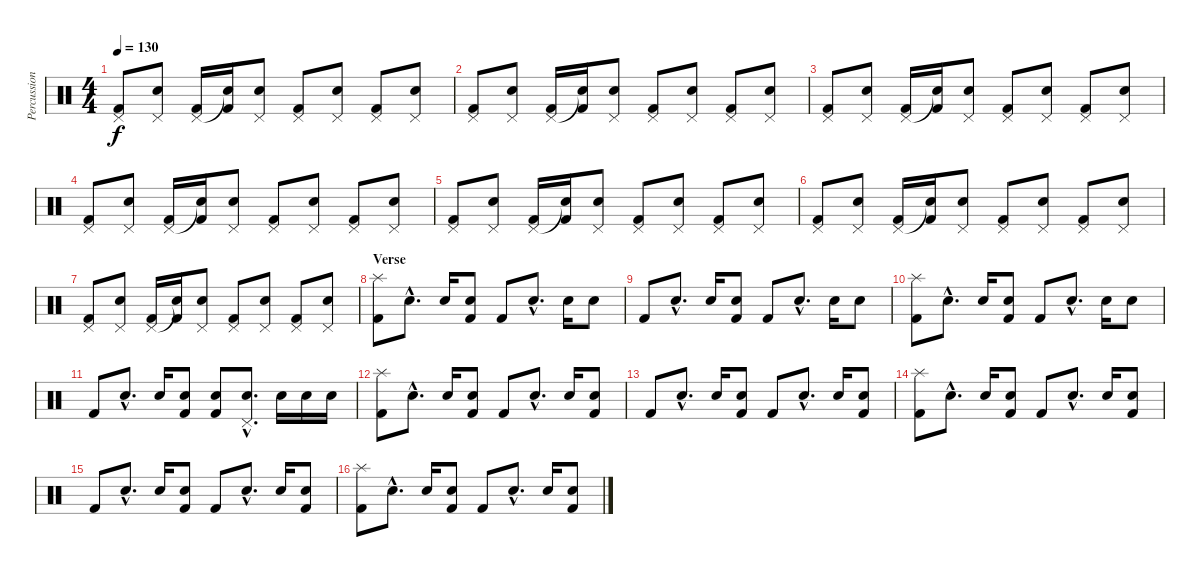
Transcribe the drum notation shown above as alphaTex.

\track ("Percussion" "Percussion") {instrument percussion}
\staff {score}
\articulation defaults
\ts (4 4)
\tempo 130
\clef neutral
\ks c
("Pedal Hi-Hat (hit)" "Kick (hit) 2").8{dy f} ("Pedal Hi-Hat (hit)" "Electric Snare (hit)").8 ("Pedal Hi-Hat (hit)" "Kick (hit) 2").16 ("Snare (hit)"{t} "Kick (hit) 2").16 ("Pedal Hi-Hat (hit)" "Electric Snare (hit)").8 ("Pedal Hi-Hat (hit)" "Kick (hit) 2").8 ("Pedal Hi-Hat (hit)" "Electric Snare (hit)").8 ("Pedal Hi-Hat (hit)" "Kick (hit) 2").8 ("Pedal Hi-Hat (hit)" "Electric Snare (hit)").8 |
("Pedal Hi-Hat (hit)" "Kick (hit) 2").8 ("Pedal Hi-Hat (hit)" "Electric Snare (hit)").8 ("Pedal Hi-Hat (hit)" "Kick (hit) 2").16 ("Snare (hit)"{t} "Kick (hit) 2").16 ("Pedal Hi-Hat (hit)" "Electric Snare (hit)").8 ("Pedal Hi-Hat (hit)" "Kick (hit) 2").8 ("Pedal Hi-Hat (hit)" "Electric Snare (hit)").8 ("Pedal Hi-Hat (hit)" "Kick (hit) 2").8 ("Pedal Hi-Hat (hit)" "Electric Snare (hit)").8 |
("Pedal Hi-Hat (hit)" "Kick (hit) 2").8 ("Pedal Hi-Hat (hit)" "Electric Snare (hit)").8 ("Pedal Hi-Hat (hit)" "Kick (hit) 2").16 ("Snare (hit)"{t} "Kick (hit) 2").16 ("Pedal Hi-Hat (hit)" "Electric Snare (hit)").8 ("Pedal Hi-Hat (hit)" "Kick (hit) 2").8 ("Pedal Hi-Hat (hit)" "Electric Snare (hit)").8 ("Pedal Hi-Hat (hit)" "Kick (hit) 2").8 ("Pedal Hi-Hat (hit)" "Electric Snare (hit)").8 |
("Pedal Hi-Hat (hit)" "Kick (hit) 2").8 ("Pedal Hi-Hat (hit)" "Electric Snare (hit)").8 ("Pedal Hi-Hat (hit)" "Kick (hit) 2").16 ("Snare (hit)"{t} "Kick (hit) 2").16 ("Pedal Hi-Hat (hit)" "Electric Snare (hit)").8 ("Pedal Hi-Hat (hit)" "Kick (hit) 2").8 ("Pedal Hi-Hat (hit)" "Electric Snare (hit)").8 ("Pedal Hi-Hat (hit)" "Kick (hit) 2").8 ("Pedal Hi-Hat (hit)" "Electric Snare (hit)").8 |
("Pedal Hi-Hat (hit)" "Kick (hit) 2").8 ("Pedal Hi-Hat (hit)" "Electric Snare (hit)").8 ("Pedal Hi-Hat (hit)" "Kick (hit) 2").16 ("Snare (hit)"{t} "Kick (hit) 2").16 ("Pedal Hi-Hat (hit)" "Electric Snare (hit)").8 ("Pedal Hi-Hat (hit)" "Kick (hit) 2").8 ("Pedal Hi-Hat (hit)" "Electric Snare (hit)").8 ("Pedal Hi-Hat (hit)" "Kick (hit) 2").8 ("Pedal Hi-Hat (hit)" "Electric Snare (hit)").8 |
("Pedal Hi-Hat (hit)" "Kick (hit) 2").8 ("Pedal Hi-Hat (hit)" "Electric Snare (hit)").8 ("Pedal Hi-Hat (hit)" "Kick (hit) 2").16 ("Snare (hit)"{t} "Kick (hit) 2").16 ("Pedal Hi-Hat (hit)" "Electric Snare (hit)").8 ("Pedal Hi-Hat (hit)" "Kick (hit) 2").8 ("Pedal Hi-Hat (hit)" "Electric Snare (hit)").8 ("Pedal Hi-Hat (hit)" "Kick (hit) 2").8 ("Pedal Hi-Hat (hit)" "Electric Snare (hit)").8 |
("Pedal Hi-Hat (hit)" "Kick (hit) 2").8 ("Pedal Hi-Hat (hit)" "Electric Snare (hit)").8 ("Pedal Hi-Hat (hit)" "Kick (hit) 2").16 ("Snare (hit)"{t} "Kick (hit) 2").16 ("Pedal Hi-Hat (hit)" "Electric Snare (hit)").8 ("Pedal Hi-Hat (hit)" "Kick (hit) 2").8 ("Pedal Hi-Hat (hit)" "Electric Snare (hit)").8 ("Pedal Hi-Hat (hit)" "Kick (hit) 2").8 ("Pedal Hi-Hat (hit)" "Electric Snare (hit)").8 |
\section ("" "Verse")
("Splash (hit)" "Kick (hit) 2").8 "Electric Snare (hit)"{hac}.8{d} "Electric Snare (hit)".16 ("Electric Snare (hit)" "Kick (hit) 2").8 "Kick (hit) 2".8 "Electric Snare (hit)"{hac}.8{d} "Electric Snare (hit)".16 "Electric Snare (hit)".8 |
"Kick (hit) 2".8 "Electric Snare (hit)"{hac}.8{d} "Electric Snare (hit)".16 ("Electric Snare (hit)" "Kick (hit) 2").8 "Kick (hit) 2".8 "Electric Snare (hit)"{hac}.8{d} "Electric Snare (hit)".16 "Electric Snare (hit)".8 |
("Splash (hit)" "Kick (hit) 2").8 "Electric Snare (hit)"{hac}.8{d} "Electric Snare (hit)".16 ("Electric Snare (hit)" "Kick (hit) 2").8 "Kick (hit) 2".8 "Electric Snare (hit)"{hac}.8{d} "Electric Snare (hit)".16 "Electric Snare (hit)".8 |
"Kick (hit) 2".8 "Electric Snare (hit)"{hac}.8{d} "Electric Snare (hit)".16 ("Electric Snare (hit)" "Kick (hit) 2").8 ("Electric Snare (hit)" "Kick (hit) 2").8 ("Pedal Hi-Hat (hit)"{hac} "Electric Snare (hit)"{hac}).8{d} "Electric Snare (hit)".16 "Electric Snare (hit)".16 "Electric Snare (hit)".16 |
("Splash (hit)" "Kick (hit) 2").8 "Electric Snare (hit)"{hac}.8{d} "Electric Snare (hit)".16 ("Electric Snare (hit)" "Kick (hit) 2").8 "Kick (hit) 2".8 "Electric Snare (hit)"{hac}.8{d} "Electric Snare (hit)".16 ("Electric Snare (hit)" "Kick (hit) 2").8 |
"Kick (hit) 2".8 "Electric Snare (hit)"{hac}.8{d} "Electric Snare (hit)".16 ("Electric Snare (hit)" "Kick (hit) 2").8 "Kick (hit) 2".8 "Electric Snare (hit)"{hac}.8{d} "Electric Snare (hit)".16 ("Electric Snare (hit)" "Kick (hit) 2").8 |
("Splash (hit)" "Kick (hit) 2").8 "Electric Snare (hit)"{hac}.8{d} "Electric Snare (hit)".16 ("Electric Snare (hit)" "Kick (hit) 2").8 "Kick (hit) 2".8 "Electric Snare (hit)"{hac}.8{d} "Electric Snare (hit)".16 ("Electric Snare (hit)" "Kick (hit) 2").8 |
"Kick (hit) 2".8 "Electric Snare (hit)"{hac}.8{d} "Electric Snare (hit)".16 ("Electric Snare (hit)" "Kick (hit) 2").8 "Kick (hit) 2".8 "Electric Snare (hit)"{hac}.8{d} "Electric Snare (hit)".16 ("Electric Snare (hit)" "Kick (hit) 2").8 |
("Splash (hit)" "Kick (hit) 2").8 "Electric Snare (hit)"{hac}.8{d} "Electric Snare (hit)".16 ("Electric Snare (hit)" "Kick (hit) 2").8 "Kick (hit) 2".8 "Electric Snare (hit)"{hac}.8{d} "Electric Snare (hit)".16 ("Electric Snare (hit)" "Kick (hit) 2").8
